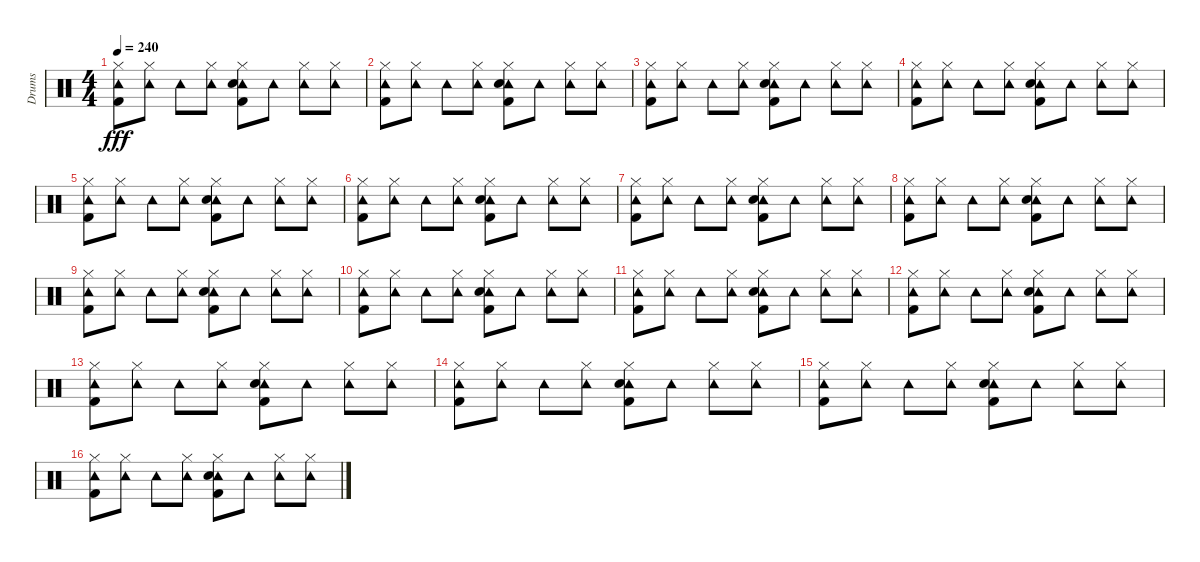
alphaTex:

\track ("Drums" "Drums") {instrument percussion}
\staff {score}
\articulation defaults
\ts (4 4)
\tempo 240
\clef neutral
\ks c
("Tambourine (hit)" "Hi-Hat (closed)" "Kick (hit) 2").8{dy fff} ("Tambourine (hit)" "Hi-Hat (closed)").8 "Tambourine (hit)".8 ("Tambourine (hit)" "Hi-Hat (closed)").8 ("Tambourine (hit)" "Hi-Hat (closed)" "Snare (hit) 2" "Kick (hit) 2").8 "Tambourine (hit)".8 ("Tambourine (hit)" "Hi-Hat (closed)").8 ("Tambourine (hit)" "Hi-Hat (closed)").8 |
("Tambourine (hit)" "Hi-Hat (closed)" "Kick (hit) 2").8 ("Tambourine (hit)" "Hi-Hat (closed)").8 "Tambourine (hit)".8 ("Tambourine (hit)" "Hi-Hat (closed)").8 ("Tambourine (hit)" "Hi-Hat (closed)" "Snare (hit) 2" "Kick (hit) 2").8 "Tambourine (hit)".8 ("Tambourine (hit)" "Hi-Hat (closed)").8 ("Tambourine (hit)" "Hi-Hat (closed)").8 |
("Tambourine (hit)" "Hi-Hat (closed)" "Kick (hit) 2").8 ("Tambourine (hit)" "Hi-Hat (closed)").8 "Tambourine (hit)".8 ("Tambourine (hit)" "Hi-Hat (closed)").8 ("Tambourine (hit)" "Hi-Hat (closed)" "Snare (hit) 2" "Kick (hit) 2").8 "Tambourine (hit)".8 ("Tambourine (hit)" "Hi-Hat (closed)").8 ("Tambourine (hit)" "Hi-Hat (closed)").8 |
("Tambourine (hit)" "Hi-Hat (closed)" "Kick (hit) 2").8 ("Tambourine (hit)" "Hi-Hat (closed)").8 "Tambourine (hit)".8 ("Tambourine (hit)" "Hi-Hat (closed)").8 ("Tambourine (hit)" "Hi-Hat (closed)" "Snare (hit) 2" "Kick (hit) 2").8 "Tambourine (hit)".8 ("Tambourine (hit)" "Hi-Hat (closed)").8 ("Tambourine (hit)" "Hi-Hat (closed)").8 |
("Tambourine (hit)" "Hi-Hat (closed)" "Kick (hit) 2").8 ("Tambourine (hit)" "Hi-Hat (closed)").8 "Tambourine (hit)".8 ("Tambourine (hit)" "Hi-Hat (closed)").8 ("Tambourine (hit)" "Hi-Hat (closed)" "Snare (hit) 2" "Kick (hit) 2").8 "Tambourine (hit)".8 ("Tambourine (hit)" "Hi-Hat (closed)").8 ("Tambourine (hit)" "Hi-Hat (closed)").8 |
("Tambourine (hit)" "Hi-Hat (closed)" "Kick (hit) 2").8 ("Tambourine (hit)" "Hi-Hat (closed)").8 "Tambourine (hit)".8 ("Tambourine (hit)" "Hi-Hat (closed)").8 ("Tambourine (hit)" "Hi-Hat (closed)" "Snare (hit) 2" "Kick (hit) 2").8 "Tambourine (hit)".8 ("Tambourine (hit)" "Hi-Hat (closed)").8 ("Tambourine (hit)" "Hi-Hat (closed)").8 |
("Tambourine (hit)" "Hi-Hat (closed)" "Kick (hit) 2").8 ("Tambourine (hit)" "Hi-Hat (closed)").8 "Tambourine (hit)".8 ("Tambourine (hit)" "Hi-Hat (closed)").8 ("Tambourine (hit)" "Hi-Hat (closed)" "Snare (hit) 2" "Kick (hit) 2").8 "Tambourine (hit)".8 ("Tambourine (hit)" "Hi-Hat (closed)").8 ("Tambourine (hit)" "Hi-Hat (closed)").8 |
("Tambourine (hit)" "Hi-Hat (closed)" "Kick (hit) 2").8 ("Tambourine (hit)" "Hi-Hat (closed)").8 "Tambourine (hit)".8 ("Tambourine (hit)" "Hi-Hat (closed)").8 ("Tambourine (hit)" "Hi-Hat (closed)" "Snare (hit) 2" "Kick (hit) 2").8 "Tambourine (hit)".8 ("Tambourine (hit)" "Hi-Hat (closed)").8 ("Tambourine (hit)" "Hi-Hat (closed)").8 |
("Tambourine (hit)" "Hi-Hat (closed)" "Kick (hit) 2").8 ("Tambourine (hit)" "Hi-Hat (closed)").8 "Tambourine (hit)".8 ("Tambourine (hit)" "Hi-Hat (closed)").8 ("Tambourine (hit)" "Hi-Hat (closed)" "Snare (hit) 2" "Kick (hit) 2").8 "Tambourine (hit)".8 ("Tambourine (hit)" "Hi-Hat (closed)").8 ("Tambourine (hit)" "Hi-Hat (closed)").8 |
("Tambourine (hit)" "Hi-Hat (closed)" "Kick (hit) 2").8 ("Tambourine (hit)" "Hi-Hat (closed)").8 "Tambourine (hit)".8 ("Tambourine (hit)" "Hi-Hat (closed)").8 ("Tambourine (hit)" "Hi-Hat (closed)" "Snare (hit) 2" "Kick (hit) 2").8 "Tambourine (hit)".8 ("Tambourine (hit)" "Hi-Hat (closed)").8 ("Tambourine (hit)" "Hi-Hat (closed)").8 |
("Tambourine (hit)" "Hi-Hat (closed)" "Kick (hit) 2").8 ("Tambourine (hit)" "Hi-Hat (closed)").8 "Tambourine (hit)".8 ("Tambourine (hit)" "Hi-Hat (closed)").8 ("Tambourine (hit)" "Hi-Hat (closed)" "Snare (hit) 2" "Kick (hit) 2").8 "Tambourine (hit)".8 ("Tambourine (hit)" "Hi-Hat (closed)").8 ("Tambourine (hit)" "Hi-Hat (closed)").8 |
("Tambourine (hit)" "Hi-Hat (closed)" "Kick (hit) 2").8 ("Tambourine (hit)" "Hi-Hat (closed)").8 "Tambourine (hit)".8 ("Tambourine (hit)" "Hi-Hat (closed)").8 ("Tambourine (hit)" "Hi-Hat (closed)" "Snare (hit) 2" "Kick (hit) 2").8 "Tambourine (hit)".8 ("Tambourine (hit)" "Hi-Hat (closed)").8 ("Tambourine (hit)" "Hi-Hat (closed)").8 |
("Tambourine (hit)" "Hi-Hat (closed)" "Kick (hit) 2").8 ("Tambourine (hit)" "Hi-Hat (closed)").8 "Tambourine (hit)".8 ("Tambourine (hit)" "Hi-Hat (closed)").8 ("Tambourine (hit)" "Hi-Hat (closed)" "Snare (hit) 2" "Kick (hit) 2").8 "Tambourine (hit)".8 ("Tambourine (hit)" "Hi-Hat (closed)").8 ("Tambourine (hit)" "Hi-Hat (closed)").8 |
("Tambourine (hit)" "Hi-Hat (closed)" "Kick (hit) 2").8 ("Tambourine (hit)" "Hi-Hat (closed)").8 "Tambourine (hit)".8 ("Tambourine (hit)" "Hi-Hat (closed)").8 ("Tambourine (hit)" "Hi-Hat (closed)" "Snare (hit) 2" "Kick (hit) 2").8 "Tambourine (hit)".8 ("Tambourine (hit)" "Hi-Hat (closed)").8 ("Tambourine (hit)" "Hi-Hat (closed)").8 |
("Tambourine (hit)" "Hi-Hat (closed)" "Kick (hit) 2").8 ("Tambourine (hit)" "Hi-Hat (closed)").8 "Tambourine (hit)".8 ("Tambourine (hit)" "Hi-Hat (closed)").8 ("Tambourine (hit)" "Hi-Hat (closed)" "Snare (hit) 2" "Kick (hit) 2").8 "Tambourine (hit)".8 ("Tambourine (hit)" "Hi-Hat (closed)").8 ("Tambourine (hit)" "Hi-Hat (closed)").8 |
("Tambourine (hit)" "Hi-Hat (closed)" "Kick (hit) 2").8 ("Tambourine (hit)" "Hi-Hat (closed)").8 "Tambourine (hit)".8 ("Tambourine (hit)" "Hi-Hat (closed)").8 ("Tambourine (hit)" "Hi-Hat (closed)" "Snare (hit) 2" "Kick (hit) 2").8 "Tambourine (hit)".8 ("Tambourine (hit)" "Hi-Hat (closed)").8 ("Tambourine (hit)" "Hi-Hat (closed)").8
